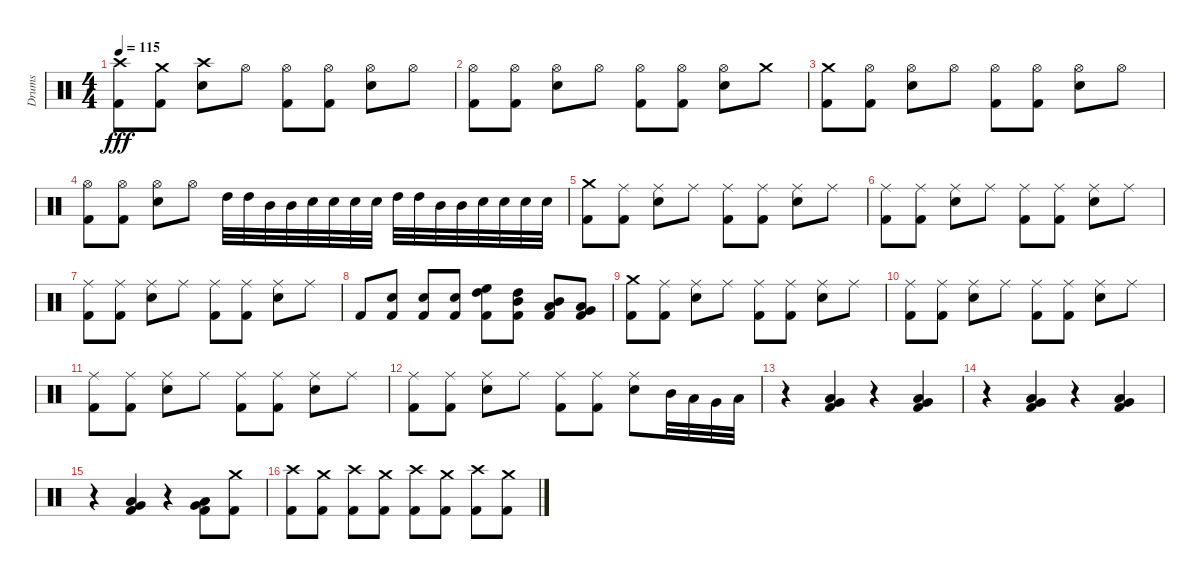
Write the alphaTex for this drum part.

\track ("Drums" "Drums") {instrument percussion}
\staff {score}
\articulation defaults
\ts (4 4)
\tempo 115
\clef neutral
\ks c
("Kick (hit) 2" "Crash high (hit)").8{dy fff} ("Kick (hit) 2" "Crash medium (hit)").8 ("Electric Snare (hit)" "Crash high (hit)").8 "Hi-Hat (open)".8 ("Kick (hit) 2" "Hi-Hat (open)").8 ("Kick (hit) 2" "Hi-Hat (open)").8 ("Electric Snare (hit)" "Hi-Hat (open)").8 "Hi-Hat (open)".8 |
("Hi-Hat (open)" "Kick (hit) 2").8 ("Hi-Hat (open)" "Kick (hit) 2").8 ("Hi-Hat (open)" "Electric Snare (hit)").8 "Hi-Hat (open)".8 ("Hi-Hat (open)" "Kick (hit) 2").8 ("Hi-Hat (open)" "Kick (hit) 2").8 ("Hi-Hat (open)" "Electric Snare (hit)").8 "Crash medium (hit)".8 |
("Kick (hit) 2" "Crash medium (hit)").8 ("Hi-Hat (open)" "Kick (hit) 2").8 ("Hi-Hat (open)" "Electric Snare (hit)").8 "Hi-Hat (open)".8 ("Hi-Hat (open)" "Kick (hit) 2").8 ("Hi-Hat (open)" "Kick (hit) 2").8 ("Hi-Hat (open)" "Electric Snare (hit)").8 "Hi-Hat (open)".8 |
("Hi-Hat (open)" "Kick (hit) 2").8 ("Hi-Hat (open)" "Kick (hit) 2").8 ("Hi-Hat (open)" "Electric Snare (hit)").8 "Hi-Hat (open)".8 "High Tom (hit)".32 "High Tom (hit)".32 "Mid Tom (hit)".32 "Mid Tom (hit)".32 "Electric Snare (hit)".32 "Electric Snare (hit)".32 "Electric Snare (hit)".32 "Electric Snare (hit)".32 "High Tom (hit)".32 "High Tom (hit)".32 "Mid Tom (hit)".32 "Mid Tom (hit)".32 "Electric Snare (hit)".32 "Electric Snare (hit)".32 "Electric Snare (hit)".32 "Electric Snare (hit)".32 |
("Kick (hit) 2" "Crash medium (hit)").8 ("Kick (hit) 2" "Ride (middle)").8 ("Electric Snare (hit)" "Ride (middle)").8 "Ride (middle)".8 ("Kick (hit) 2" "Ride (middle)").8 ("Kick (hit) 2" "Ride (middle)").8 ("Electric Snare (hit)" "Ride (middle)").8 "Ride (middle)".8 |
("Kick (hit) 2" "Ride (middle)").8 ("Kick (hit) 2" "Ride (middle)").8 ("Electric Snare (hit)" "Ride (middle)").8 "Ride (middle)".8 ("Kick (hit) 2" "Ride (middle)").8 ("Kick (hit) 2" "Ride (middle)").8 ("Electric Snare (hit)" "Ride (middle)").8 "Ride (middle)".8 |
("Kick (hit) 2" "Ride (middle)").8 ("Kick (hit) 2" "Ride (middle)").8 ("Electric Snare (hit)" "Ride (middle)").8 "Ride (middle)".8 ("Kick (hit) 2" "Ride (middle)").8 ("Kick (hit) 2" "Ride (middle)").8 ("Electric Snare (hit)" "Ride (middle)").8 "Ride (middle)".8 |
"Kick (hit) 2".8 ("Kick (hit) 2" "Electric Snare (hit)").8 ("Kick (hit) 2" "Electric Snare (hit)").8 ("Kick (hit) 2" "Electric Snare (hit)").8 ("High Floor Tom (hit)" "Kick (hit) 2" "High Tom (hit)").8 ("High Tom (hit)" "Kick (hit) 2" "Mid Tom (hit)").8 ("Mid Tom (hit)" "Kick (hit) 2" "Low Tom (hit)").8 ("Low Tom (hit)" "Kick (hit) 2" "Very Low Tom (hit)").8 |
("Kick (hit) 2" "Crash medium (hit)").8 ("Kick (hit) 2" "Ride (middle)").8 ("Electric Snare (hit)" "Ride (middle)").8 "Ride (middle)".8 ("Kick (hit) 2" "Ride (middle)").8 ("Kick (hit) 2" "Ride (middle)").8 ("Electric Snare (hit)" "Ride (middle)").8 "Ride (middle)".8 |
("Kick (hit) 2" "Ride (middle)").8 ("Kick (hit) 2" "Ride (middle)").8 ("Electric Snare (hit)" "Ride (middle)").8 "Ride (middle)".8 ("Kick (hit) 2" "Ride (middle)").8 ("Kick (hit) 2" "Ride (middle)").8 ("Electric Snare (hit)" "Ride (middle)").8 "Ride (middle)".8 |
("Ride (middle)" "Kick (hit) 2").8 ("Ride (middle)" "Kick (hit) 2").8 ("Ride (middle)" "Electric Snare (hit)").8 "Ride (middle)".8 ("Ride (middle)" "Kick (hit) 2").8 ("Ride (middle)" "Kick (hit) 2").8 ("Ride (middle)" "Electric Snare (hit)").8 "Ride (middle)".8 |
("Ride (middle)" "Kick (hit) 2").8 ("Ride (middle)" "Kick (hit) 2").8 ("Ride (middle)" "Electric Snare (hit)").8 "Ride (middle)".8 ("Ride (middle)" "Kick (hit) 2").8 ("Ride (middle)" "Kick (hit) 2").8 ("Ride (middle)" "Electric Snare (hit)").8 "Mid Tom (hit)".32 "Low Tom (hit)".32 "Very Low Tom (hit)".32 "Low Floor Tom (hit)".32 |
r.4 ("Low Tom (hit)" "Kick (hit) 2" "Very Low Tom (hit)").4 r.4 ("Low Tom (hit)" "Very Low Tom (hit)" "Kick (hit) 2").4 |
r.4 ("Kick (hit) 2" "Very Low Tom (hit)" "Low Tom (hit)").4 r.4 ("Low Tom (hit)" "Very Low Tom (hit)" "Kick (hit) 2").4 |
r.4 ("Low Tom (hit)" "Very Low Tom (hit)" "Kick (hit) 2").4 r.4 ("Low Tom (hit)" "Very Low Tom (hit)" "Kick (hit) 2").8 ("Crash medium (hit)" "Kick (hit) 2").8 |
("Crash high (hit)" "Kick (hit) 2").8 ("Crash medium (hit)" "Kick (hit) 2").8 ("Crash high (hit)" "Kick (hit) 2").8 ("Crash medium (hit)" "Kick (hit) 2").8 ("Crash high (hit)" "Kick (hit) 2").8 ("Crash medium (hit)" "Kick (hit) 2").8 ("Crash high (hit)" "Kick (hit) 2").8 ("Crash medium (hit)" "Kick (hit) 2").8
